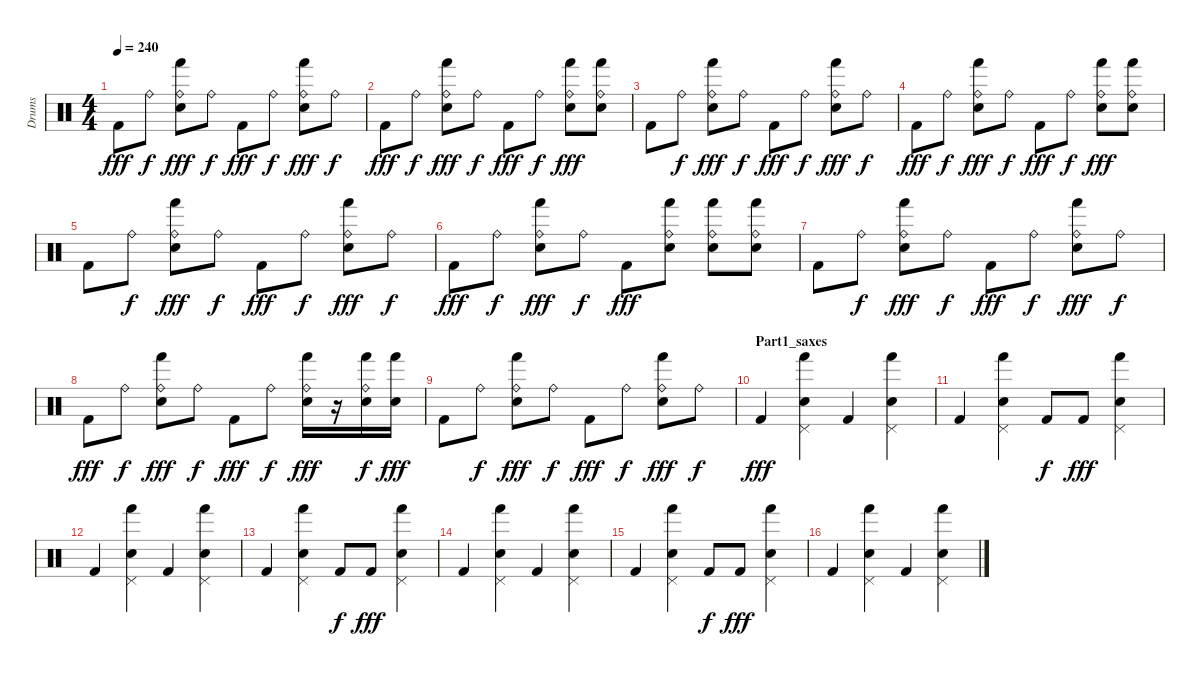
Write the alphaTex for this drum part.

\track ("Drums" "Drums") {instrument percussion}
\staff {score}
\articulation defaults
\ts (4 4)
\tempo 240
\clef neutral
\ks c "Kick (hit) 2".8{dy fff} "Ride (bell)".8{dy f}
("Ride (bell)" "Hand (hit)" "Electric Snare (hit)").8{dy fff} "Ride (bell)".8{dy f} "Kick (hit) 2".8{dy fff} "Ride (bell)".8{dy f} ("Ride (bell)" "Hand (hit)" "Electric Snare (hit)").8{dy fff} "Ride (bell)".8{dy f} |
"Kick (hit) 2".8{dy fff} "Ride (bell)".8{dy f} ("Ride (bell)" "Hand (hit)" "Electric Snare (hit)").8{dy fff} "Ride (bell)".8{dy f} "Kick (hit) 2".8{dy fff} "Ride (bell)".8{dy f} ("Ride (bell)" "Hand (hit)" "Electric Snare (hit)").8{dy fff} ("Ride (bell)" "Hand (hit)" "Electric Snare (hit)").8 |
"Kick (hit) 2".8 "Ride (bell)".8{dy f} ("Ride (bell)" "Hand (hit)" "Electric Snare (hit)").8{dy fff} "Ride (bell)".8{dy f} "Kick (hit) 2".8{dy fff} "Ride (bell)".8{dy f} ("Ride (bell)" "Hand (hit)" "Electric Snare (hit)").8{dy fff} "Ride (bell)".8{dy f} |
"Kick (hit) 2".8{dy fff} "Ride (bell)".8{dy f} ("Ride (bell)" "Hand (hit)" "Electric Snare (hit)").8{dy fff} "Ride (bell)".8{dy f} "Kick (hit) 2".8{dy fff} "Ride (bell)".8{dy f} ("Ride (bell)" "Hand (hit)" "Electric Snare (hit)").8{dy fff} ("Ride (bell)" "Hand (hit)" "Electric Snare (hit)").8 |
"Kick (hit) 2".8 "Ride (bell)".8{dy f} ("Ride (bell)" "Hand (hit)" "Electric Snare (hit)").8{dy fff} "Ride (bell)".8{dy f} "Kick (hit) 2".8{dy fff} "Ride (bell)".8{dy f} ("Ride (bell)" "Hand (hit)" "Electric Snare (hit)").8{dy fff} "Ride (bell)".8{dy f} |
"Kick (hit) 2".8{dy fff} "Ride (bell)".8{dy f} ("Ride (bell)" "Hand (hit)" "Electric Snare (hit)").8{dy fff} "Ride (bell)".8{dy f} "Kick (hit) 2".8{dy fff} ("Ride (bell)" "Hand (hit)" "Electric Snare (hit)").8 ("Ride (bell)" "Hand (hit)" "Electric Snare (hit)").8 ("Ride (bell)" "Hand (hit)" "Electric Snare (hit)").8 |
"Kick (hit) 2".8 "Ride (bell)".8{dy f} ("Ride (bell)" "Hand (hit)" "Electric Snare (hit)").8{dy fff} "Ride (bell)".8{dy f} "Kick (hit) 2".8{dy fff} "Ride (bell)".8{dy f} ("Ride (bell)" "Hand (hit)" "Electric Snare (hit)").8{dy fff} "Ride (bell)".8{dy f} |
"Kick (hit) 2".8{dy fff} "Ride (bell)".8{dy f} ("Ride (bell)" "Hand (hit)" "Electric Snare (hit)").8{dy fff} "Ride (bell)".8{dy f} "Kick (hit) 2".8{dy fff} "Ride (bell)".8{dy f} ("Ride (bell)" "Hand (hit)" "Electric Snare (hit)").16{dy fff} r.16 ("Ride (bell)" "Hand (hit)" "Electric Snare (hit)").16{dy f} ("Hand (hit)" "Electric Snare (hit)").16{dy fff} |
"Kick (hit) 2".8 "Ride (bell)".8{dy f} ("Ride (bell)" "Hand (hit)" "Electric Snare (hit)").8{dy fff} "Ride (bell)".8{dy f} "Kick (hit) 2".8{dy fff} "Ride (bell)".8{dy f} ("Ride (bell)" "Hand (hit)" "Electric Snare (hit)").8{dy fff} "Ride (bell)".8{dy f} |
\section ("" "Part1_saxes")
"Kick (hit) 2".4{dy fff} ("Pedal Hi-Hat (hit)" "Hand (hit)" "Electric Snare (hit)").4 "Kick (hit) 2".4 ("Pedal Hi-Hat (hit)" "Hand (hit)" "Electric Snare (hit)").4 |
"Kick (hit) 2".4 ("Pedal Hi-Hat (hit)" "Hand (hit)" "Electric Snare (hit)").4 "Kick (hit) 2".8{dy f} "Kick (hit) 2".8{dy fff} ("Pedal Hi-Hat (hit)" "Hand (hit)" "Electric Snare (hit)").4 |
"Kick (hit) 2".4 ("Pedal Hi-Hat (hit)" "Hand (hit)" "Electric Snare (hit)").4 "Kick (hit) 2".4 ("Pedal Hi-Hat (hit)" "Hand (hit)" "Electric Snare (hit)").4 |
"Kick (hit) 2".4 ("Pedal Hi-Hat (hit)" "Hand (hit)" "Electric Snare (hit)").4 "Kick (hit) 2".8{dy f} "Kick (hit) 2".8{dy fff} ("Pedal Hi-Hat (hit)" "Hand (hit)" "Electric Snare (hit)").4 |
"Kick (hit) 2".4 ("Pedal Hi-Hat (hit)" "Hand (hit)" "Electric Snare (hit)").4 "Kick (hit) 2".4 ("Pedal Hi-Hat (hit)" "Hand (hit)" "Electric Snare (hit)").4 |
"Kick (hit) 2".4 ("Pedal Hi-Hat (hit)" "Hand (hit)" "Electric Snare (hit)").4 "Kick (hit) 2".8{dy f} "Kick (hit) 2".8{dy fff} ("Pedal Hi-Hat (hit)" "Hand (hit)" "Electric Snare (hit)").4 |
"Kick (hit) 2".4 ("Pedal Hi-Hat (hit)" "Hand (hit)" "Electric Snare (hit)").4 "Kick (hit) 2".4 ("Pedal Hi-Hat (hit)" "Hand (hit)" "Electric Snare (hit)").4
